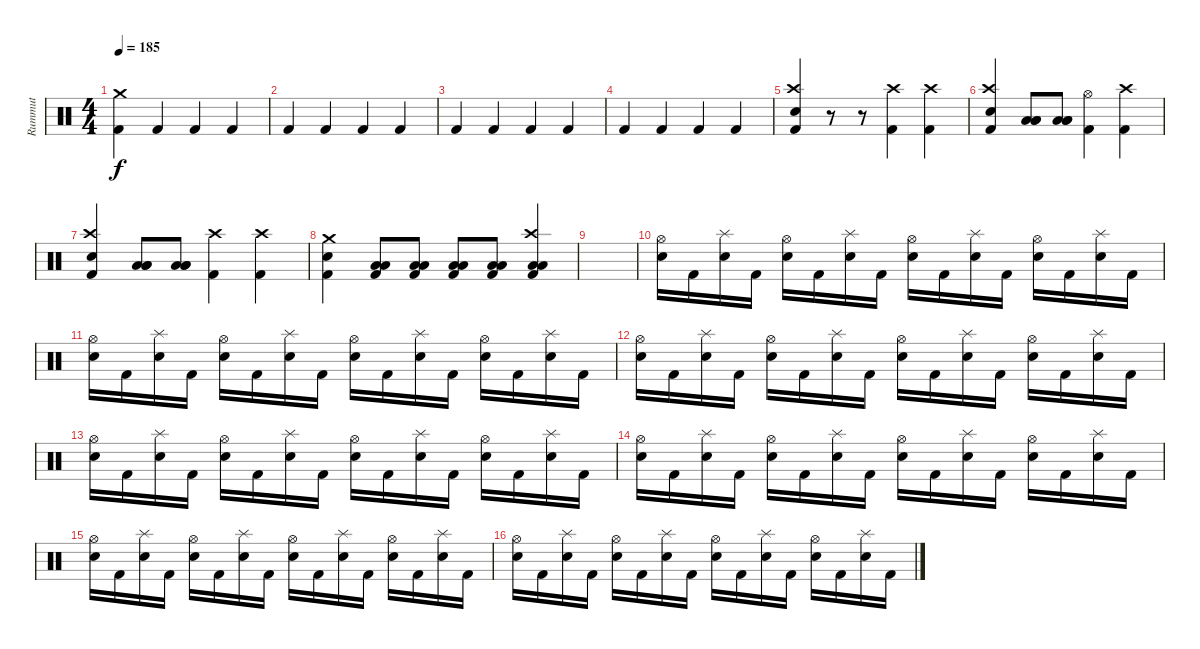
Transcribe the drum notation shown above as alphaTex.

\track ("Rummut" "Rummut") {instrument percussion}
\staff {score}
\articulation defaults
\ts (4 4)
\tempo 185
\clef neutral
\ks c
("Crash medium (hit)" "Kick (hit) 2").4{dy f} "Kick (hit) 2".4 "Kick (hit) 2".4 "Kick (hit) 2".4 |
"Kick (hit) 2".4 "Kick (hit) 2".4 "Kick (hit) 2".4 "Kick (hit) 2".4 |
"Kick (hit) 2".4 "Kick (hit) 2".4 "Kick (hit) 2".4 "Kick (hit) 2".4 |
"Kick (hit) 2".4 "Kick (hit) 2".4 "Kick (hit) 2".4 "Kick (hit) 2".4 |
("Crash high (hit)" "Electric Snare (hit)" "Kick (hit) 2").4 r.8 r.8 ("Crash high (hit)" "Kick (hit) 2").4 ("Crash high (hit)" "Kick (hit) 2").4 |
("Crash high (hit)" "Electric Snare (hit)" "Kick (hit) 2").4 ("Low Floor Tom (hit)" "Low Floor Tom (hit)" "Low Floor Tom (hit)").8 ("Low Floor Tom (hit)" "Low Floor Tom (hit)" "Low Floor Tom (hit)").8 ("Hi-Hat (open)" "Kick (hit) 2").4 ("Crash high (hit)" "Kick (hit) 2").4 |
("Crash high (hit)" "Electric Snare (hit)" "Kick (hit) 2").4 ("Low Floor Tom (hit)" "Low Floor Tom (hit)" "Low Floor Tom (hit)").8 ("Low Floor Tom (hit)" "Low Floor Tom (hit)" "Low Floor Tom (hit)").8 ("Crash high (hit)" "Kick (hit) 2").4 ("Crash high (hit)" "Kick (hit) 2").4 |
("Crash medium (hit)" "Electric Snare (hit)" "Kick (hit) 2").4 ("Low Floor Tom (hit)" "Low Floor Tom (hit)" "Kick (hit) 2").8 ("Low Floor Tom (hit)" "Low Floor Tom (hit)" "Kick (hit) 2").8 ("Low Floor Tom (hit)" "Low Floor Tom (hit)" "Kick (hit) 2").8 ("Low Floor Tom (hit)" "Low Floor Tom (hit)" "Kick (hit) 2").8 ("Crash high (hit)" "Low Floor Tom (hit)" "Low Floor Tom (hit)" "Kick (hit) 2").4 |
|
("Hi-Hat (open)" "Electric Snare (hit)").16 "Kick (hit) 2".16 ("Splash (hit)" "Electric Snare (hit)").16 "Kick (hit) 2".16 ("Hi-Hat (open)" "Electric Snare (hit)").16 "Kick (hit) 2".16 ("Splash (hit)" "Electric Snare (hit)").16 "Kick (hit) 2".16 ("Hi-Hat (open)" "Electric Snare (hit)").16 "Kick (hit) 2".16 ("Splash (hit)" "Electric Snare (hit)").16 "Kick (hit) 2".16 ("Hi-Hat (open)" "Electric Snare (hit)").16 "Kick (hit) 2".16 ("Splash (hit)" "Electric Snare (hit)").16 "Kick (hit) 2".16 |
("Hi-Hat (open)" "Electric Snare (hit)").16 "Kick (hit) 2".16 ("Splash (hit)" "Electric Snare (hit)").16 "Kick (hit) 2".16 ("Hi-Hat (open)" "Electric Snare (hit)").16 "Kick (hit) 2".16 ("Splash (hit)" "Electric Snare (hit)").16 "Kick (hit) 2".16 ("Hi-Hat (open)" "Electric Snare (hit)").16 "Kick (hit) 2".16 ("Splash (hit)" "Electric Snare (hit)").16 "Kick (hit) 2".16 ("Hi-Hat (open)" "Electric Snare (hit)").16 "Kick (hit) 2".16 ("Splash (hit)" "Electric Snare (hit)").16 "Kick (hit) 2".16 |
("Hi-Hat (open)" "Electric Snare (hit)").16 "Kick (hit) 2".16 ("Splash (hit)" "Electric Snare (hit)").16 "Kick (hit) 2".16 ("Hi-Hat (open)" "Electric Snare (hit)").16 "Kick (hit) 2".16 ("Splash (hit)" "Electric Snare (hit)").16 "Kick (hit) 2".16 ("Hi-Hat (open)" "Electric Snare (hit)").16 "Kick (hit) 2".16 ("Splash (hit)" "Electric Snare (hit)").16 "Kick (hit) 2".16 ("Hi-Hat (open)" "Electric Snare (hit)").16 "Kick (hit) 2".16 ("Splash (hit)" "Electric Snare (hit)").16 "Kick (hit) 2".16 |
("Hi-Hat (open)" "Electric Snare (hit)").16 "Kick (hit) 2".16 ("Splash (hit)" "Electric Snare (hit)").16 "Kick (hit) 2".16 ("Hi-Hat (open)" "Electric Snare (hit)").16 "Kick (hit) 2".16 ("Splash (hit)" "Electric Snare (hit)").16 "Kick (hit) 2".16 ("Hi-Hat (open)" "Electric Snare (hit)").16 "Kick (hit) 2".16 ("Splash (hit)" "Electric Snare (hit)").16 "Kick (hit) 2".16 ("Hi-Hat (open)" "Electric Snare (hit)").16 "Kick (hit) 2".16 ("Splash (hit)" "Electric Snare (hit)").16 "Kick (hit) 2".16 |
("Hi-Hat (open)" "Electric Snare (hit)").16 "Kick (hit) 2".16 ("Splash (hit)" "Electric Snare (hit)").16 "Kick (hit) 2".16 ("Hi-Hat (open)" "Electric Snare (hit)").16 "Kick (hit) 2".16 ("Splash (hit)" "Electric Snare (hit)").16 "Kick (hit) 2".16 ("Hi-Hat (open)" "Electric Snare (hit)").16 "Kick (hit) 2".16 ("Splash (hit)" "Electric Snare (hit)").16 "Kick (hit) 2".16 ("Hi-Hat (open)" "Electric Snare (hit)").16 "Kick (hit) 2".16 ("Splash (hit)" "Electric Snare (hit)").16 "Kick (hit) 2".16 |
("Hi-Hat (open)" "Electric Snare (hit)").16 "Kick (hit) 2".16 ("Splash (hit)" "Electric Snare (hit)").16 "Kick (hit) 2".16 ("Hi-Hat (open)" "Electric Snare (hit)").16 "Kick (hit) 2".16 ("Splash (hit)" "Electric Snare (hit)").16 "Kick (hit) 2".16 ("Hi-Hat (open)" "Electric Snare (hit)").16 "Kick (hit) 2".16 ("Splash (hit)" "Electric Snare (hit)").16 "Kick (hit) 2".16 ("Hi-Hat (open)" "Electric Snare (hit)").16 "Kick (hit) 2".16 ("Splash (hit)" "Electric Snare (hit)").16 "Kick (hit) 2".16 |
("Hi-Hat (open)" "Electric Snare (hit)").16 "Kick (hit) 2".16 ("Splash (hit)" "Electric Snare (hit)").16 "Kick (hit) 2".16 ("Hi-Hat (open)" "Electric Snare (hit)").16 "Kick (hit) 2".16 ("Splash (hit)" "Electric Snare (hit)").16 "Kick (hit) 2".16 ("Hi-Hat (open)" "Electric Snare (hit)").16 "Kick (hit) 2".16 ("Splash (hit)" "Electric Snare (hit)").16 "Kick (hit) 2".16 ("Hi-Hat (open)" "Electric Snare (hit)").16 "Kick (hit) 2".16 ("Splash (hit)" "Electric Snare (hit)").16 "Kick (hit) 2".16
